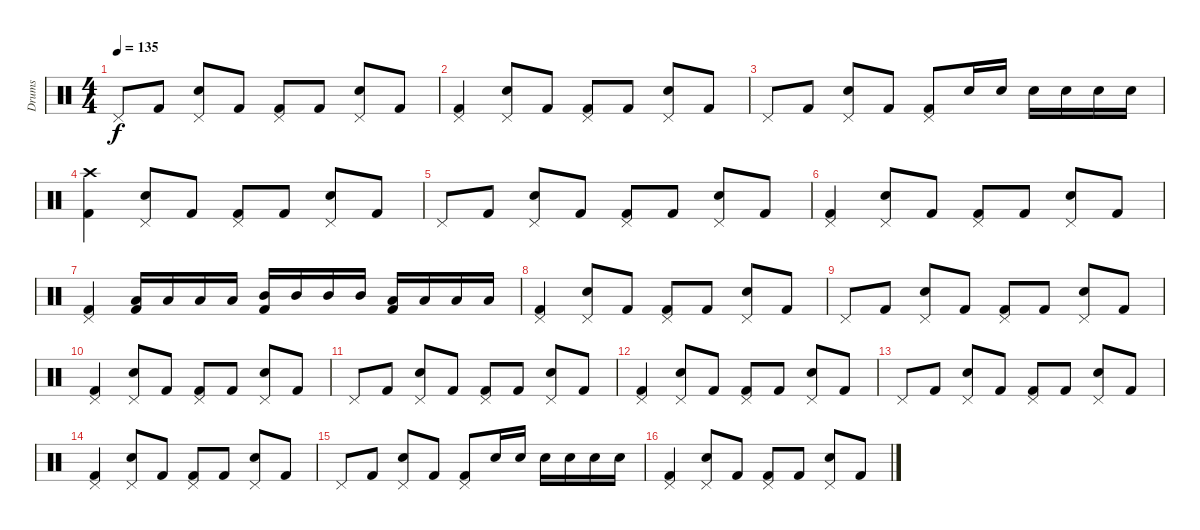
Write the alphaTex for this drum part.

\track ("Drums" "Drums") {instrument percussion}
\staff {score}
\articulation defaults
\ts (4 4)
\tempo 135
\clef neutral
\ks c "Pedal Hi-Hat (hit)".8{dy f} "Kick (hit) 2".8
("Pedal Hi-Hat (hit)" "Electric Snare (hit)").8 "Kick (hit) 2".8 ("Pedal Hi-Hat (hit)" "Kick (hit) 2").8 "Kick (hit) 2".8 ("Pedal Hi-Hat (hit)" "Electric Snare (hit)").8 "Kick (hit) 2".8 |
("Pedal Hi-Hat (hit)" "Kick (hit) 2").4 ("Pedal Hi-Hat (hit)" "Electric Snare (hit)").8 "Kick (hit) 2".8 ("Pedal Hi-Hat (hit)" "Kick (hit) 2").8 "Kick (hit) 2".8 ("Pedal Hi-Hat (hit)" "Electric Snare (hit)").8 "Kick (hit) 2".8 |
"Pedal Hi-Hat (hit)".8 "Kick (hit) 2".8 ("Pedal Hi-Hat (hit)" "Electric Snare (hit)").8 "Kick (hit) 2".8 ("Pedal Hi-Hat (hit)" "Kick (hit) 2").8 "Electric Snare (hit)".16 "Electric Snare (hit)".16 "Electric Snare (hit)".16 "Electric Snare (hit)".16 "Electric Snare (hit)".16 "Electric Snare (hit)".16 |
("Crash high (hit)" "Kick (hit) 2").4 ("Pedal Hi-Hat (hit)" "Electric Snare (hit)").8 "Kick (hit) 2".8 ("Pedal Hi-Hat (hit)" "Kick (hit) 2").8 "Kick (hit) 2".8 ("Pedal Hi-Hat (hit)" "Electric Snare (hit)").8 "Kick (hit) 2".8 |
"Pedal Hi-Hat (hit)".8 "Kick (hit) 2".8 ("Pedal Hi-Hat (hit)" "Electric Snare (hit)").8 "Kick (hit) 2".8 ("Pedal Hi-Hat (hit)" "Kick (hit) 2").8 "Kick (hit) 2".8 ("Pedal Hi-Hat (hit)" "Electric Snare (hit)").8 "Kick (hit) 2".8 |
("Pedal Hi-Hat (hit)" "Kick (hit) 2").4 ("Pedal Hi-Hat (hit)" "Electric Snare (hit)").8 "Kick (hit) 2".8 ("Pedal Hi-Hat (hit)" "Kick (hit) 2").8 "Kick (hit) 2".8 ("Pedal Hi-Hat (hit)" "Electric Snare (hit)").8 "Kick (hit) 2".8 |
("Pedal Hi-Hat (hit)" "Kick (hit) 2").4 ("Low Tom (hit)" "Kick (hit) 2").16 "Low Tom (hit)".16 "Low Tom (hit)".16 "Low Tom (hit)".16 ("Mid Tom (hit)" "Kick (hit) 2").16 "Mid Tom (hit)".16 "Mid Tom (hit)".16 "Mid Tom (hit)".16 ("Low Floor Tom (hit)" "Kick (hit) 2").16 "Low Floor Tom (hit)".16 "Low Floor Tom (hit)".16 "Low Floor Tom (hit)".16 |
("Pedal Hi-Hat (hit)" "Kick (hit) 2").4 ("Pedal Hi-Hat (hit)" "Electric Snare (hit)").8 "Kick (hit) 2".8 ("Pedal Hi-Hat (hit)" "Kick (hit) 2").8 "Kick (hit) 2".8 ("Pedal Hi-Hat (hit)" "Electric Snare (hit)").8 "Kick (hit) 2".8 |
"Pedal Hi-Hat (hit)".8 "Kick (hit) 2".8 ("Pedal Hi-Hat (hit)" "Electric Snare (hit)").8 "Kick (hit) 2".8 ("Pedal Hi-Hat (hit)" "Kick (hit) 2").8 "Kick (hit) 2".8 ("Pedal Hi-Hat (hit)" "Electric Snare (hit)").8 "Kick (hit) 2".8 |
("Pedal Hi-Hat (hit)" "Kick (hit) 2").4 ("Pedal Hi-Hat (hit)" "Electric Snare (hit)").8 "Kick (hit) 2".8 ("Pedal Hi-Hat (hit)" "Kick (hit) 2").8 "Kick (hit) 2".8 ("Pedal Hi-Hat (hit)" "Electric Snare (hit)").8 "Kick (hit) 2".8 |
"Pedal Hi-Hat (hit)".8 "Kick (hit) 2".8 ("Pedal Hi-Hat (hit)" "Electric Snare (hit)").8 "Kick (hit) 2".8 ("Pedal Hi-Hat (hit)" "Kick (hit) 2").8 "Kick (hit) 2".8 ("Pedal Hi-Hat (hit)" "Electric Snare (hit)").8 "Kick (hit) 2".8 |
("Pedal Hi-Hat (hit)" "Kick (hit) 2").4 ("Pedal Hi-Hat (hit)" "Electric Snare (hit)").8 "Kick (hit) 2".8 ("Pedal Hi-Hat (hit)" "Kick (hit) 2").8 "Kick (hit) 2".8 ("Pedal Hi-Hat (hit)" "Electric Snare (hit)").8 "Kick (hit) 2".8 |
"Pedal Hi-Hat (hit)".8 "Kick (hit) 2".8 ("Pedal Hi-Hat (hit)" "Electric Snare (hit)").8 "Kick (hit) 2".8 ("Pedal Hi-Hat (hit)" "Kick (hit) 2").8 "Kick (hit) 2".8 ("Pedal Hi-Hat (hit)" "Electric Snare (hit)").8 "Kick (hit) 2".8 |
("Pedal Hi-Hat (hit)" "Kick (hit) 2").4 ("Pedal Hi-Hat (hit)" "Electric Snare (hit)").8 "Kick (hit) 2".8 ("Pedal Hi-Hat (hit)" "Kick (hit) 2").8 "Kick (hit) 2".8 ("Pedal Hi-Hat (hit)" "Electric Snare (hit)").8 "Kick (hit) 2".8 |
"Pedal Hi-Hat (hit)".8 "Kick (hit) 2".8 ("Pedal Hi-Hat (hit)" "Electric Snare (hit)").8 "Kick (hit) 2".8 ("Pedal Hi-Hat (hit)" "Kick (hit) 2").8 "Electric Snare (hit)".16 "Electric Snare (hit)".16 "Electric Snare (hit)".16 "Electric Snare (hit)".16 "Electric Snare (hit)".16 "Electric Snare (hit)".16 |
("Pedal Hi-Hat (hit)" "Kick (hit) 2").4{volume 10} ("Pedal Hi-Hat (hit)" "Electric Snare (hit)").8 "Kick (hit) 2".8 ("Pedal Hi-Hat (hit)" "Kick (hit) 2").8 "Kick (hit) 2".8 ("Pedal Hi-Hat (hit)" "Electric Snare (hit)").8 "Kick (hit) 2".8
